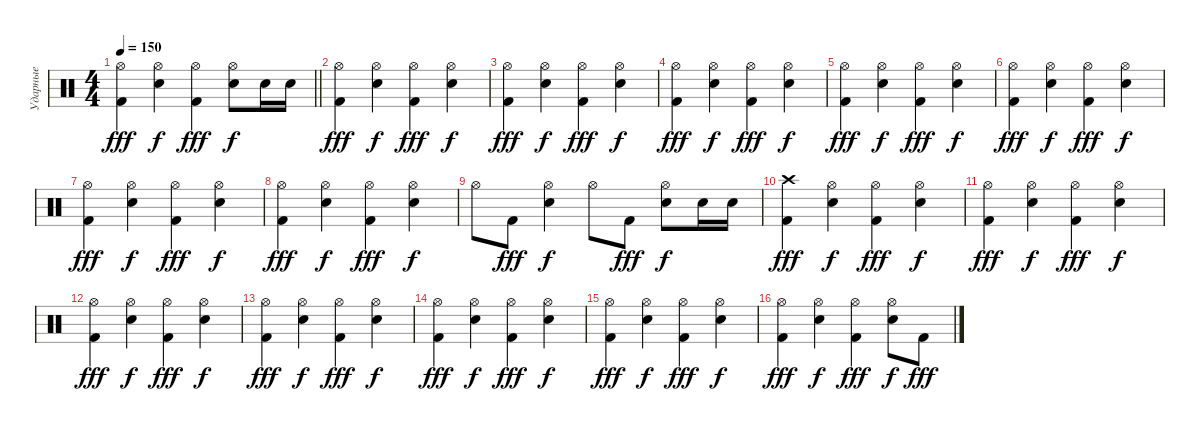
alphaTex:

\track ("Ударные" "Ударные") {instrument percussion}
\staff {score}
\articulation defaults
\ts (4 4)
\tempo 150
\clef neutral
\barLineRight lightlight
\ks c
("Kick (hit) 2" "Hi-Hat (open)").4{dy fff} ("Snare (hit) 2" "Hi-Hat (open)").4{dy f} ("Kick (hit) 2" "Hi-Hat (open)").4{dy fff} ("Snare (hit) 2" "Hi-Hat (open)").8{dy f} "Snare (hit) 2".16 "Snare (hit) 2".16 |
("Kick (hit) 2" "Hi-Hat (open)").4{dy fff} ("Snare (hit) 2" "Hi-Hat (open)").4{dy f} ("Kick (hit) 2" "Hi-Hat (open)").4{dy fff} ("Snare (hit) 2" "Hi-Hat (open)").4{dy f} |
("Kick (hit) 2" "Hi-Hat (open)").4{dy fff} ("Snare (hit) 2" "Hi-Hat (open)").4{dy f} ("Kick (hit) 2" "Hi-Hat (open)").4{dy fff} ("Snare (hit) 2" "Hi-Hat (open)").4{dy f} |
("Kick (hit) 2" "Hi-Hat (open)").4{dy fff} ("Snare (hit) 2" "Hi-Hat (open)").4{dy f} ("Kick (hit) 2" "Hi-Hat (open)").4{dy fff} ("Snare (hit) 2" "Hi-Hat (open)").4{dy f} |
("Kick (hit) 2" "Hi-Hat (open)").4{dy fff} ("Snare (hit) 2" "Hi-Hat (open)").4{dy f} ("Kick (hit) 2" "Hi-Hat (open)").4{dy fff} ("Snare (hit) 2" "Hi-Hat (open)").4{dy f} |
("Kick (hit) 2" "Hi-Hat (open)").4{dy fff} ("Snare (hit) 2" "Hi-Hat (open)").4{dy f} ("Kick (hit) 2" "Hi-Hat (open)").4{dy fff} ("Snare (hit) 2" "Hi-Hat (open)").4{dy f} |
("Kick (hit) 2" "Hi-Hat (open)").4{dy fff} ("Snare (hit) 2" "Hi-Hat (open)").4{dy f} ("Kick (hit) 2" "Hi-Hat (open)").4{dy fff} ("Snare (hit) 2" "Hi-Hat (open)").4{dy f} |
("Kick (hit) 2" "Hi-Hat (open)").4{dy fff} ("Snare (hit) 2" "Hi-Hat (open)").4{dy f} ("Kick (hit) 2" "Hi-Hat (open)").4{dy fff} ("Snare (hit) 2" "Hi-Hat (open)").4{dy f} |
"Hi-Hat (open)".8 "Kick (hit) 2".8{dy fff} ("Snare (hit) 2" "Hi-Hat (open)").4{dy f} "Hi-Hat (open)".8 "Kick (hit) 2".8{dy fff} ("Snare (hit) 2" "Hi-Hat (open)").8{dy f} "Snare (hit) 2".16 "Snare (hit) 2".16 |
("Kick (hit) 2" "Crash high (hit)").4{dy fff} ("Snare (hit) 2" "Hi-Hat (open)").4{dy f} ("Kick (hit) 2" "Hi-Hat (open)").4{dy fff} ("Snare (hit) 2" "Hi-Hat (open)").4{dy f} |
("Kick (hit) 2" "Hi-Hat (open)").4{dy fff} ("Snare (hit) 2" "Hi-Hat (open)").4{dy f} ("Kick (hit) 2" "Hi-Hat (open)").4{dy fff} ("Snare (hit) 2" "Hi-Hat (open)").4{dy f} |
("Kick (hit) 2" "Hi-Hat (open)").4{dy fff} ("Snare (hit) 2" "Hi-Hat (open)").4{dy f} ("Kick (hit) 2" "Hi-Hat (open)").4{dy fff} ("Snare (hit) 2" "Hi-Hat (open)").4{dy f} |
("Kick (hit) 2" "Hi-Hat (open)").4{dy fff} ("Snare (hit) 2" "Hi-Hat (open)").4{dy f} ("Kick (hit) 2" "Hi-Hat (open)").4{dy fff} ("Snare (hit) 2" "Hi-Hat (open)").4{dy f} |
("Kick (hit) 2" "Hi-Hat (open)").4{dy fff} ("Snare (hit) 2" "Hi-Hat (open)").4{dy f} ("Kick (hit) 2" "Hi-Hat (open)").4{dy fff} ("Snare (hit) 2" "Hi-Hat (open)").4{dy f} |
("Kick (hit) 2" "Hi-Hat (open)").4{dy fff} ("Snare (hit) 2" "Hi-Hat (open)").4{dy f} ("Kick (hit) 2" "Hi-Hat (open)").4{dy fff} ("Snare (hit) 2" "Hi-Hat (open)").4{dy f} |
("Kick (hit) 2" "Hi-Hat (open)").4{dy fff} ("Snare (hit) 2" "Hi-Hat (open)").4{dy f} ("Kick (hit) 2" "Hi-Hat (open)").4{dy fff} ("Snare (hit) 2" "Hi-Hat (open)").8{dy f} "Kick (hit) 2".8{dy fff}
